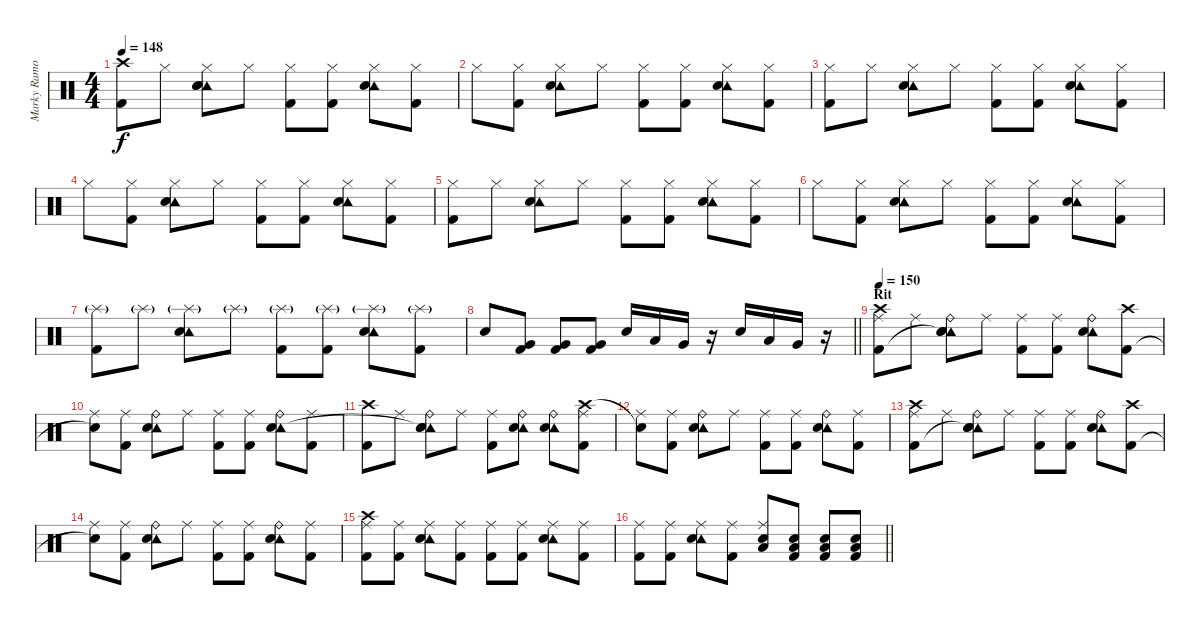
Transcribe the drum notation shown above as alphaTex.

\track ("Marky Ramone - Drum" "Marky Ramo") {instrument percussion}
\staff {score}
\articulation defaults
\ts (4 4)
\tempo 148
\clef neutral
\ks c
("Crash high (hit)" "Kick (hit) 2").8{dy f} "Hi-Hat (closed)".8 ("Hi-Hat (closed)" "Tambourine (hit)" "Snare (hit)" "Snare (hit) 2").8 "Hi-Hat (closed)".8 ("Hi-Hat (closed)" "Kick (hit) 2").8 ("Hi-Hat (closed)" "Kick (hit) 2").8 ("Hi-Hat (closed)" "Tambourine (hit)" "Snare (hit) 2").8 ("Hi-Hat (closed)" "Kick (hit) 2").8 |
"Hi-Hat (closed)".8 ("Hi-Hat (closed)" "Kick (hit) 2").8 ("Hi-Hat (closed)" "Tambourine (hit)" "Snare (hit) 2").8 "Hi-Hat (closed)".8 ("Hi-Hat (closed)" "Kick (hit) 2").8 ("Hi-Hat (closed)" "Kick (hit) 2").8 ("Hi-Hat (closed)" "Tambourine (hit)" "Snare (hit) 2").8 ("Hi-Hat (closed)" "Kick (hit) 2").8 |
("Hi-Hat (closed)" "Kick (hit) 2").8 "Hi-Hat (closed)".8 ("Hi-Hat (closed)" "Tambourine (hit)" "Snare (hit) 2").8 "Hi-Hat (closed)".8 ("Hi-Hat (closed)" "Kick (hit) 2").8 ("Hi-Hat (closed)" "Kick (hit) 2").8 ("Hi-Hat (closed)" "Tambourine (hit)" "Snare (hit) 2").8 ("Hi-Hat (closed)" "Kick (hit) 2").8 |
"Hi-Hat (closed)".8 ("Hi-Hat (closed)" "Kick (hit) 2").8 ("Hi-Hat (closed)" "Tambourine (hit)" "Snare (hit) 2").8 "Hi-Hat (closed)".8 ("Hi-Hat (closed)" "Kick (hit) 2").8 ("Hi-Hat (closed)" "Kick (hit) 2").8 ("Hi-Hat (closed)" "Tambourine (hit)" "Snare (hit) 2").8 ("Hi-Hat (closed)" "Kick (hit) 2").8 |
("Hi-Hat (closed)" "Kick (hit) 2").8 "Hi-Hat (closed)".8 ("Hi-Hat (closed)" "Tambourine (hit)" "Snare (hit) 2").8 "Hi-Hat (closed)".8 ("Hi-Hat (closed)" "Kick (hit) 2").8 ("Hi-Hat (closed)" "Kick (hit) 2").8 ("Hi-Hat (closed)" "Tambourine (hit)" "Snare (hit) 2").8 ("Hi-Hat (closed)" "Kick (hit) 2").8 |
"Hi-Hat (closed)".8 ("Hi-Hat (closed)" "Kick (hit) 2").8 ("Hi-Hat (closed)" "Tambourine (hit)" "Snare (hit) 2").8 "Hi-Hat (closed)".8 ("Hi-Hat (closed)" "Kick (hit) 2").8 ("Hi-Hat (closed)" "Kick (hit) 2").8 ("Hi-Hat (closed)" "Tambourine (hit)" "Snare (hit) 2").8 ("Hi-Hat (closed)" "Kick (hit) 2").8 |
("Splash (hit)"{g} "Kick (hit) 2").8 "Splash (hit)"{g}.8 ("Splash (hit)"{g} "Tambourine (hit)" "Snare (hit) 2").8 "Splash (hit)"{g}.8 ("Splash (hit)"{g} "Kick (hit) 2").8 ("Splash (hit)"{g} "Kick (hit) 2").8 ("Splash (hit)"{g} "Tambourine (hit)" "Snare (hit) 2").8 ("Splash (hit)"{g} "Kick (hit) 2").8 |
\barLineRight lightlight "Snare (hit) 2".8
("Very Low Tom (hit)" "Kick (hit) 2").8 ("Very Low Tom (hit)" "Kick (hit) 2").8 ("Very Low Tom (hit)" "Kick (hit) 2").8 "Electric Snare (hit)".16 "Low Tom (hit)".16 "Very Low Tom (hit)".16 r.16 "Electric Snare (hit)".16 "Low Tom (hit)".16 "Very Low Tom (hit)".16 r.16 |
\section ("" "Rit")
\tempo 150
("Ride (middle)" "Crash high (hit)" "Kick (hit) 2").8 "Ride (middle)".8 ("Ride (bell)" "Tambourine (hit)" "Snare (hit)"{t} "Snare (hit) 2").8 "Ride (middle)".8 ("Ride (middle)" "Kick (hit) 2").8 ("Ride (middle)" "Kick (hit) 2").8 ("Ride (bell)" "Tambourine (hit)" "Snare (hit) 2").8 ("Crash high (hit)" "Kick (hit) 2").8 |
("Ride (middle)" "Snare (hit)"{t}).8 ("Ride (middle)" "Kick (hit) 2").8 ("Ride (bell)" "Tambourine (hit)" "Snare (hit) 2").8 "Ride (middle)".8 ("Ride (middle)" "Kick (hit) 2").8 ("Ride (middle)" "Kick (hit) 2").8 ("Ride (bell)" "Tambourine (hit)" "Snare (hit) 2").8 ("Ride (middle)" "Kick (hit) 2").8 |
("Crash high (hit)" "Kick (hit) 2").8 "Ride (middle)".8 ("Ride (bell)" "Tambourine (hit)" "Snare (hit)"{t} "Snare (hit) 2").8 "Ride (middle)".8 ("Ride (middle)" "Kick (hit) 2").8 ("Ride (bell)" "Tambourine (hit)" "Snare (hit) 2").8 ("Ride (bell)" "Tambourine (hit)" "Snare (hit) 2").8 ("Ride (middle)" "Crash high (hit)" "Kick (hit) 2").8 |
("Ride (middle)" "Snare (hit)"{t}).8 ("Ride (middle)" "Kick (hit) 2").8 ("Ride (bell)" "Tambourine (hit)" "Snare (hit) 2").8 "Ride (middle)".8 ("Ride (middle)" "Kick (hit) 2").8 ("Ride (middle)" "Kick (hit) 2").8 ("Ride (bell)" "Tambourine (hit)" "Snare (hit) 2").8 ("Ride (middle)" "Kick (hit) 2").8 |
("Ride (middle)" "Crash high (hit)" "Kick (hit) 2").8 "Ride (middle)".8 ("Ride (bell)" "Tambourine (hit)" "Snare (hit)"{t} "Snare (hit) 2").8 "Ride (middle)".8 ("Ride (middle)" "Kick (hit) 2").8 ("Ride (middle)" "Kick (hit) 2").8 ("Ride (bell)" "Tambourine (hit)" "Snare (hit) 2").8 ("Crash high (hit)" "Kick (hit) 2").8 |
("Ride (middle)" "Snare (hit)"{t}).8 ("Ride (middle)" "Kick (hit) 2").8 ("Ride (bell)" "Tambourine (hit)" "Snare (hit) 2").8 "Ride (middle)".8 ("Ride (middle)" "Kick (hit) 2").8 ("Ride (middle)" "Kick (hit) 2").8 ("Ride (bell)" "Tambourine (hit)" "Snare (hit) 2").8 ("Ride (middle)" "Kick (hit) 2").8 |
("Ride (middle)" "Crash high (hit)" "Kick (hit) 2").8 ("Ride (middle)" "Kick (hit) 2").8 ("Ride (middle)" "Tambourine (hit)" "Snare (hit) 2").8 ("Ride (middle)" "Kick (hit) 2").8 ("Ride (middle)" "Kick (hit) 2").8 ("Ride (middle)" "Kick (hit) 2").8 ("Ride (middle)" "Tambourine (hit)" "Snare (hit) 2").8 ("Ride (middle)" "Kick (hit) 2").8 |
\barLineRight lightlight
("Ride (middle)" "Kick (hit) 2").8 ("Ride (middle)" "Kick (hit) 2").8 ("Ride (middle)" "Tambourine (hit)" "Snare (hit) 2").8 ("Ride (middle)" "Kick (hit) 2").8 ("Ride (middle)" "Low Floor Tom (hit)" "Snare (hit) 2").8 ("Low Floor Tom (hit)" "Snare (hit) 2" "Kick (hit) 2").8 ("Low Floor Tom (hit)" "Snare (hit) 2" "Kick (hit) 2").8 ("Low Floor Tom (hit)" "Snare (hit) 2" "Kick (hit) 2").8
